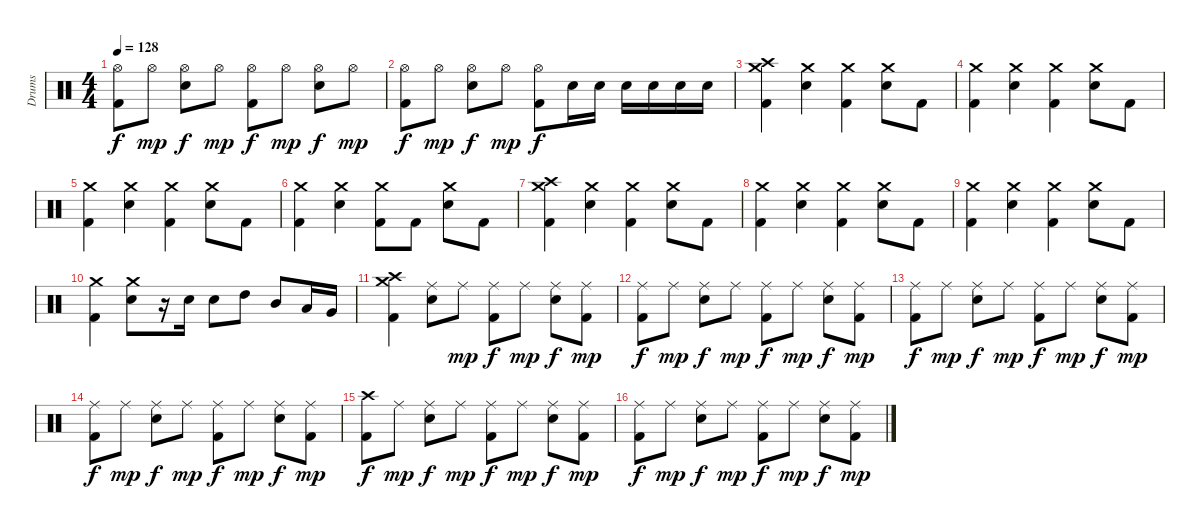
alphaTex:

\track ("Drums" "Drums") {instrument percussion}
\staff {score}
\articulation defaults
\ts (4 4)
\tempo 128
\clef neutral
\ks c
("Hi-Hat (open)" "Kick (hit) 2").8{dy f} "Hi-Hat (open)".8{dy mp} ("Hi-Hat (open)" "Snare (hit) 2").8{dy f} "Hi-Hat (open)".8{dy mp} ("Hi-Hat (open)" "Kick (hit) 2").8{dy f} "Hi-Hat (open)".8{dy mp} ("Hi-Hat (open)" "Snare (hit) 2").8{dy f} "Hi-Hat (open)".8{dy mp} |
("Hi-Hat (open)" "Kick (hit) 2").8{dy f} "Hi-Hat (open)".8{dy mp} ("Hi-Hat (open)" "Snare (hit) 2").8{dy f} "Hi-Hat (open)".8{dy mp} ("Hi-Hat (open)" "Kick (hit) 2").8{dy f} "Snare (hit) 2".16 "Snare (hit) 2".16 "Snare (hit) 2".16 "Snare (hit) 2".16 "Snare (hit) 2".16 "Snare (hit) 2".16 |
("Crash high (hit)" "Crash medium (hit)" "Kick (hit) 2").4 ("Crash medium (hit)" "Snare (hit) 2").4 ("Crash medium (hit)" "Kick (hit) 2").4 ("Crash medium (hit)" "Snare (hit) 2").8 "Kick (hit) 2".8 |
("Crash medium (hit)" "Kick (hit) 2").4 ("Crash medium (hit)" "Snare (hit) 2").4 ("Crash medium (hit)" "Kick (hit) 2").4 ("Crash medium (hit)" "Snare (hit) 2").8 "Kick (hit) 2".8 |
("Crash medium (hit)" "Kick (hit) 2").4 ("Crash medium (hit)" "Snare (hit) 2").4 ("Crash medium (hit)" "Kick (hit) 2").4 ("Crash medium (hit)" "Snare (hit) 2").8 "Kick (hit) 2".8 |
("Crash medium (hit)" "Kick (hit) 2").4 ("Crash medium (hit)" "Snare (hit) 2").4 ("Crash medium (hit)" "Kick (hit) 2").8 "Kick (hit) 2".8 ("Crash medium (hit)" "Snare (hit) 2").8 "Kick (hit) 2".8 |
("Crash high (hit)" "Crash medium (hit)" "Kick (hit) 2").4 ("Crash medium (hit)" "Snare (hit) 2").4 ("Crash medium (hit)" "Kick (hit) 2").4 ("Crash medium (hit)" "Snare (hit) 2").8 "Kick (hit) 2".8 |
("Crash medium (hit)" "Kick (hit) 2").4 ("Crash medium (hit)" "Snare (hit) 2").4 ("Crash medium (hit)" "Kick (hit) 2").4 ("Crash medium (hit)" "Snare (hit) 2").8 "Kick (hit) 2".8 |
("Crash medium (hit)" "Kick (hit) 2").4 ("Crash medium (hit)" "Snare (hit) 2").4 ("Crash medium (hit)" "Kick (hit) 2").4 ("Crash medium (hit)" "Snare (hit) 2").8 "Kick (hit) 2".8 |
("Crash medium (hit)" "Kick (hit) 2").4 ("Crash medium (hit)" "Snare (hit) 2").8 r.16 "Snare (hit) 2".16 "Snare (hit) 2".8 "High Tom (hit)".8 "Mid Tom (hit)".8 "Low Tom (hit)".16 "Very Low Tom (hit)".16 |
("Crash high (hit)" "Crash medium (hit)" "Kick (hit) 2").4 ("Ride (middle)" "Snare (hit) 2").8 "Ride (middle)".8{dy mp} ("Ride (middle)" "Kick (hit) 2").8{dy f} "Ride (middle)".8{dy mp} ("Ride (middle)" "Snare (hit) 2").8{dy f} ("Ride (middle)" "Kick (hit) 2").8{dy mp} |
("Ride (middle)" "Kick (hit) 2").8{dy f} "Ride (middle)".8{dy mp} ("Ride (middle)" "Snare (hit) 2").8{dy f} "Ride (middle)".8{dy mp} ("Ride (middle)" "Kick (hit) 2").8{dy f} "Ride (middle)".8{dy mp} ("Ride (middle)" "Snare (hit) 2").8{dy f} ("Ride (middle)" "Kick (hit) 2").8{dy mp} |
("Ride (middle)" "Kick (hit) 2").8{dy f} "Ride (middle)".8{dy mp} ("Ride (middle)" "Snare (hit) 2").8{dy f} "Ride (middle)".8{dy mp} ("Ride (middle)" "Kick (hit) 2").8{dy f} "Ride (middle)".8{dy mp} ("Ride (middle)" "Snare (hit) 2").8{dy f} ("Ride (middle)" "Kick (hit) 2").8{dy mp} |
("Ride (middle)" "Kick (hit) 2").8{dy f} "Ride (middle)".8{dy mp} ("Ride (middle)" "Snare (hit) 2").8{dy f} "Ride (middle)".8{dy mp} ("Ride (middle)" "Kick (hit) 2").8{dy f} "Ride (middle)".8{dy mp} ("Ride (middle)" "Snare (hit) 2").8{dy f} ("Ride (middle)" "Kick (hit) 2").8{dy mp} |
("Crash high (hit)" "Kick (hit) 2").8{dy f} "Ride (middle)".8{dy mp} ("Ride (middle)" "Snare (hit) 2").8{dy f} "Ride (middle)".8{dy mp} ("Ride (middle)" "Kick (hit) 2").8{dy f} "Ride (middle)".8{dy mp} ("Ride (middle)" "Snare (hit) 2").8{dy f} ("Ride (middle)" "Kick (hit) 2").8{dy mp} |
("Ride (middle)" "Kick (hit) 2").8{dy f} "Ride (middle)".8{dy mp} ("Ride (middle)" "Snare (hit) 2").8{dy f} "Ride (middle)".8{dy mp} ("Ride (middle)" "Kick (hit) 2").8{dy f} "Ride (middle)".8{dy mp} ("Ride (middle)" "Snare (hit) 2").8{dy f} ("Ride (middle)" "Kick (hit) 2").8{dy mp}
